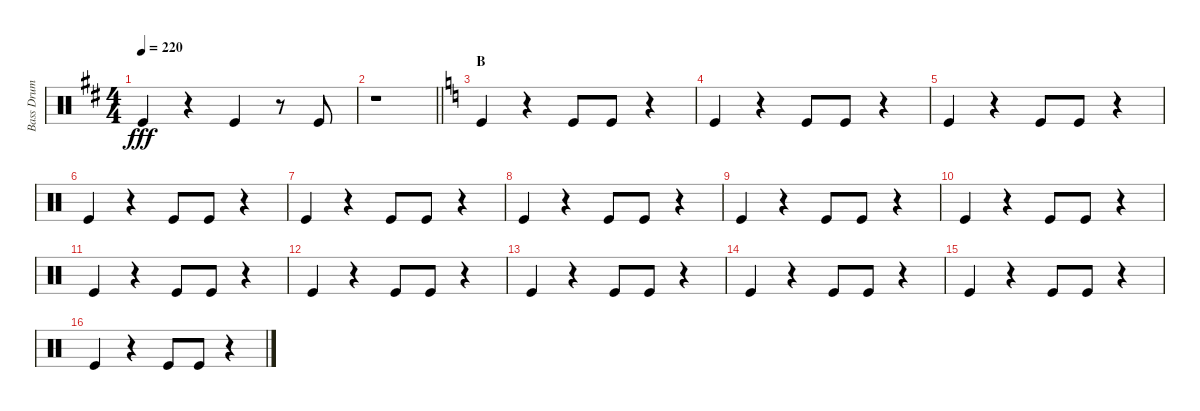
\track ("Bass Drum" "Bass Drum") {instrument percussion}
\staff {score}
\articulation defaults
\ts (4 4)
\tempo 220
\clef neutral
\ks d "Kick (hit)".4{dy fff}
r.4 "Kick (hit)".4 r.8 "Kick (hit)".8 |
\barLineRight lightlight
r.1 |
\section ("" "B")
\ks c "Kick (hit)".4
r.4 "Kick (hit)".8 "Kick (hit)".8 r.4 |
"Kick (hit)".4 r.4 "Kick (hit)".8 "Kick (hit)".8 r.4 |
"Kick (hit)".4 r.4 "Kick (hit)".8 "Kick (hit)".8 r.4 |
"Kick (hit)".4 r.4 "Kick (hit)".8 "Kick (hit)".8 r.4 |
"Kick (hit)".4 r.4 "Kick (hit)".8 "Kick (hit)".8 r.4 |
"Kick (hit)".4 r.4 "Kick (hit)".8 "Kick (hit)".8 r.4 |
"Kick (hit)".4 r.4 "Kick (hit)".8 "Kick (hit)".8 r.4 |
"Kick (hit)".4 r.4 "Kick (hit)".8 "Kick (hit)".8 r.4 |
"Kick (hit)".4 r.4 "Kick (hit)".8 "Kick (hit)".8 r.4 |
"Kick (hit)".4 r.4 "Kick (hit)".8 "Kick (hit)".8 r.4 |
"Kick (hit)".4 r.4 "Kick (hit)".8 "Kick (hit)".8 r.4 |
"Kick (hit)".4 r.4 "Kick (hit)".8 "Kick (hit)".8 r.4 |
"Kick (hit)".4 r.4 "Kick (hit)".8 "Kick (hit)".8 r.4 |
"Kick (hit)".4 r.4 "Kick (hit)".8 "Kick (hit)".8 r.4
